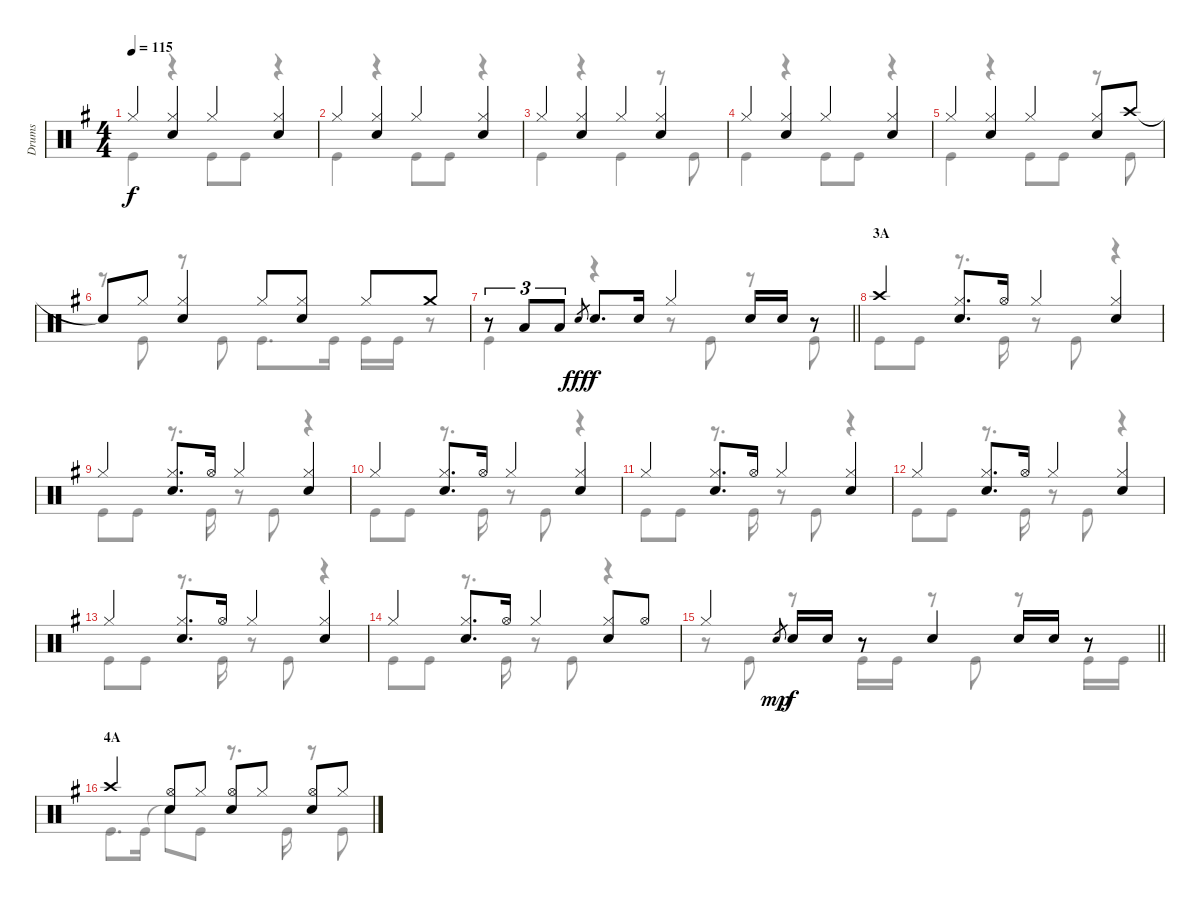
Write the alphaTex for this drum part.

\track ("Drums" "Drums") {instrument percussion}
\staff {score}
\articulation defaults
\voice
\ts (4 4)
\tempo 115
\clef neutral
\ks g "Hi-Hat (closed)".4{dy f}
("Hi-Hat (closed)" "Snare (hit) 2").4 "Hi-Hat (closed)".4 ("Hi-Hat (closed)" "Snare (hit) 2").4 |
"Hi-Hat (closed)".4 ("Hi-Hat (closed)" "Snare (hit) 2").4 "Hi-Hat (closed)".4 ("Hi-Hat (closed)" "Snare (hit) 2").4 |
"Hi-Hat (closed)".4 ("Hi-Hat (closed)" "Snare (hit) 2").4 "Hi-Hat (closed)".4 ("Hi-Hat (closed)" "Snare (hit) 2").4 |
"Hi-Hat (closed)".4 ("Hi-Hat (closed)" "Snare (hit) 2").4 "Hi-Hat (closed)".4 ("Hi-Hat (closed)" "Snare (hit) 2").4 |
"Hi-Hat (closed)".4 ("Hi-Hat (closed)" "Snare (hit) 2").4 "Hi-Hat (closed)".4 ("Hi-Hat (closed)" "Snare (hit) 2").8 "Crash high (hit)".8 |
"Snare (hit)"{t}.8 "Hi-Hat (closed)".8 ("Hi-Hat (closed)" "Snare (hit) 2").4 "Hi-Hat (closed)".8 ("Hi-Hat (closed)" "Snare (hit) 2").8 "Hi-Hat (closed)".8 "Crash medium (hit)".8 |
\barLineRight lightlight
r.8{tu (3 2)} "Low Tom (hit)".8{tu (3 2)} "Low Tom (hit)".8{tu (3 2)} "Snare (hit) 2".8{gr dy fff} "Snare (hit) 2".8{d dy f} "Snare (hit) 2".16 "Hi-Hat (closed)".4 "Snare (hit) 2".16 "Snare (hit) 2".16 r.8 |
\section ("" "3A")
"Crash high (hit)".4 ("Hi-Hat (closed)" "Snare (hit) 2").8{d} "Hi-Hat (open)".16 "Hi-Hat (closed)".4 ("Hi-Hat (closed)" "Snare (hit) 2").4 |
"Hi-Hat (closed)".4 ("Hi-Hat (closed)" "Snare (hit) 2").8{d} "Hi-Hat (open)".16 "Hi-Hat (closed)".4 ("Hi-Hat (closed)" "Snare (hit) 2").4 |
"Hi-Hat (closed)".4 ("Hi-Hat (closed)" "Snare (hit) 2").8{d} "Hi-Hat (open)".16 "Hi-Hat (closed)".4 ("Hi-Hat (closed)" "Snare (hit) 2").4 |
"Hi-Hat (closed)".4 ("Hi-Hat (closed)" "Snare (hit) 2").8{d} "Hi-Hat (open)".16 "Hi-Hat (closed)".4 ("Hi-Hat (closed)" "Snare (hit) 2").4 |
"Hi-Hat (closed)".4 ("Hi-Hat (closed)" "Snare (hit) 2").8{d} "Hi-Hat (open)".16 "Hi-Hat (closed)".4 ("Hi-Hat (closed)" "Snare (hit) 2").4 |
"Hi-Hat (closed)".4 ("Hi-Hat (closed)" "Snare (hit) 2").8{d} "Hi-Hat (open)".16 "Hi-Hat (closed)".4 ("Hi-Hat (closed)" "Snare (hit) 2").4 |
"Hi-Hat (closed)".4 ("Hi-Hat (closed)" "Snare (hit) 2").8{d} "Hi-Hat (open)".16 "Hi-Hat (closed)".4 ("Hi-Hat (closed)" "Snare (hit) 2").8 "Hi-Hat (open)".8 |
\barLineRight lightlight "Hi-Hat (closed)".4 "Snare (hit) 2".8{gr dy mp} "Snare (hit) 2".16{dy f} "Snare (hit) 2".16
r.8 "Snare (hit) 2".4 "Snare (hit) 2".16 "Snare (hit) 2".16 r.8 |
\section ("" "4A")
"Crash high (hit)".4 ("Hi-Hat (open)" "Snare (hit) 2").8 "Hi-Hat (closed)".8 ("Hi-Hat (open)" "Snare (hit) 2").8 "Hi-Hat (closed)".8 ("Hi-Hat (open)" "Snare (hit) 2").8 "Hi-Hat (closed)".8
\voice
\clef neutral
\ottava regular
\simile none
\ks g "Kick (hit)".4{dy f}
r.4 "Kick (hit)".8 "Kick (hit)".8 r.4 |
"Kick (hit)".4 r.4 "Kick (hit)".8 "Kick (hit)".8 r.4 |
"Kick (hit)".4 r.4 "Kick (hit)".4 r.8 "Kick (hit)".8 |
"Kick (hit)".4 r.4 "Kick (hit)".8 "Kick (hit)".8 r.4 |
"Kick (hit)".4 r.4 "Kick (hit)".8 "Kick (hit)".8 r.8 "Kick (hit)".8 |
r.8 "Kick (hit)".8 r.8 "Kick (hit)".8 "Kick (hit)".8{d} "Kick (hit)".16 "Kick (hit)".16 "Kick (hit)".16 r.8 |
\barLineRight lightlight "Kick (hit)".4
r.4 r.8 "Kick (hit)".8 r.8 "Kick (hit)".8 |
"Kick (hit)".8 "Kick (hit)".8 r.8{d} "Kick (hit)".16 r.8 "Kick (hit)".8 r.4 |
"Kick (hit)".8 "Kick (hit)".8 r.8{d} "Kick (hit)".16 r.8 "Kick (hit)".8 r.4 |
"Kick (hit)".8 "Kick (hit)".8 r.8{d} "Kick (hit)".16 r.8 "Kick (hit)".8 r.4 |
"Kick (hit)".8 "Kick (hit)".8 r.8{d} "Kick (hit)".16 r.8 "Kick (hit)".8 r.4 |
"Kick (hit)".8 "Kick (hit)".8 r.8{d} "Kick (hit)".16 r.8 "Kick (hit)".8 r.4 |
"Kick (hit)".8 "Kick (hit)".8 r.8{d} "Kick (hit)".16 r.8 "Kick (hit)".8 r.4 |
"Kick (hit)".8 "Kick (hit)".8 r.8{d} "Kick (hit)".16 r.8 "Kick (hit)".8 r.4 |
\barLineRight lightlight
r.8 "Kick (hit)".8 r.8 "Kick (hit)".16 "Kick (hit)".16 r.8 "Kick (hit)".8 r.8 "Kick (hit)".16 "Kick (hit)".16 |
"Kick (hit)".8{d} "Kick (hit)".16 "Snare (hit)"{t}.8 "Kick (hit)".8 r.8{d} "Kick (hit)".16 r.8 "Kick (hit)".8
